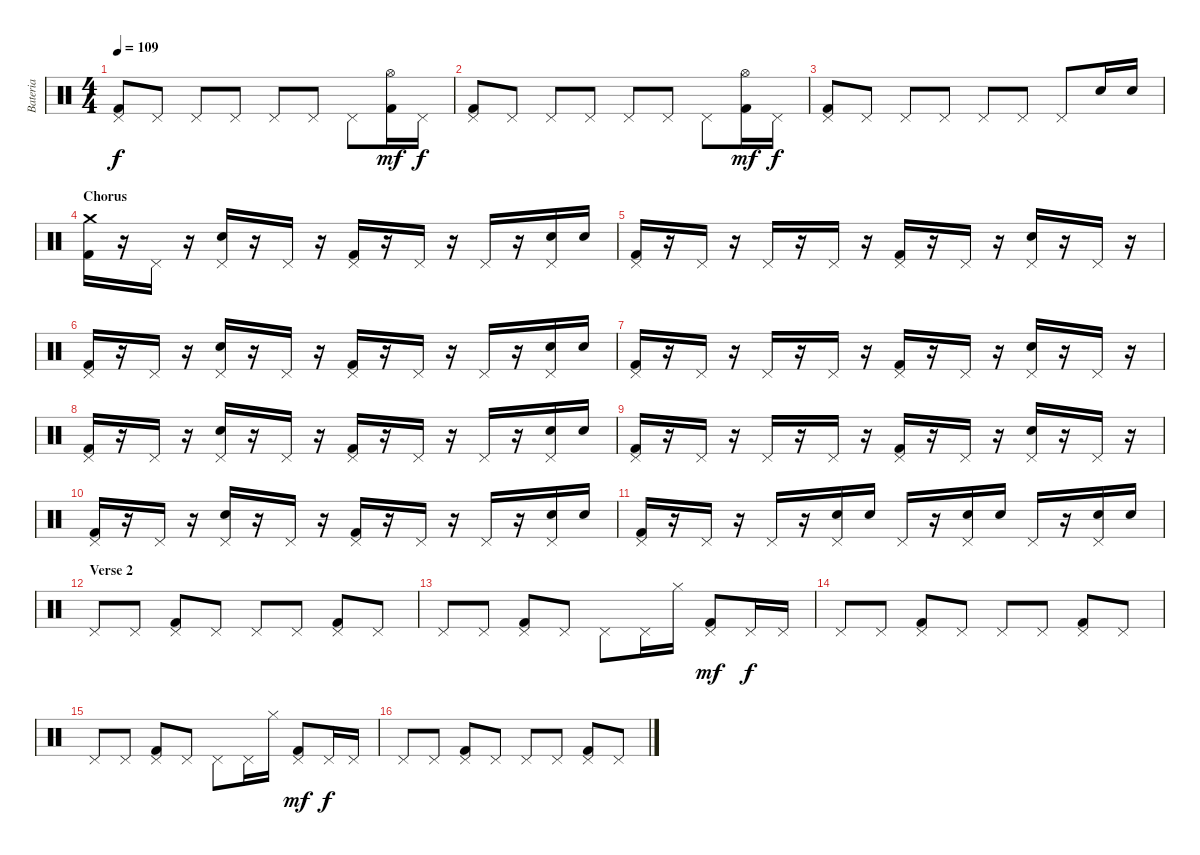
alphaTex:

\track ("Bateria" "Bateria") {instrument percussion}
\staff {score}
\articulation defaults
\ts (4 4)
\tempo 109
\clef neutral
\ks c
("Pedal Hi-Hat (hit)" "Kick (hit) 2").8{dy f} "Pedal Hi-Hat (hit)".8 "Pedal Hi-Hat (hit)".8 "Pedal Hi-Hat (hit)".8 "Pedal Hi-Hat (hit)".8 "Pedal Hi-Hat (hit)".8 "Pedal Hi-Hat (hit)".8 ("Hi-Hat (open)" "Kick (hit) 2").16{dy mf} "Pedal Hi-Hat (hit)".16{dy f} |
("Pedal Hi-Hat (hit)" "Kick (hit) 2").8 "Pedal Hi-Hat (hit)".8 "Pedal Hi-Hat (hit)".8 "Pedal Hi-Hat (hit)".8 "Pedal Hi-Hat (hit)".8 "Pedal Hi-Hat (hit)".8 "Pedal Hi-Hat (hit)".8 ("Hi-Hat (open)" "Kick (hit) 2").16{dy mf} "Pedal Hi-Hat (hit)".16{dy f} |
("Pedal Hi-Hat (hit)" "Kick (hit) 2").8 "Pedal Hi-Hat (hit)".8 "Pedal Hi-Hat (hit)".8 "Pedal Hi-Hat (hit)".8 "Pedal Hi-Hat (hit)".8 "Pedal Hi-Hat (hit)".8 "Pedal Hi-Hat (hit)".8 "Electric Snare (hit)".16 "Electric Snare (hit)".16 |
\section ("" "Chorus")
("Crash medium (hit)" "Kick (hit) 2").16 r.16 "Pedal Hi-Hat (hit)".16 r.16 ("Pedal Hi-Hat (hit)" "Electric Snare (hit)").16 r.16 "Pedal Hi-Hat (hit)".16 r.16 ("Pedal Hi-Hat (hit)" "Kick (hit) 2").16 r.16 "Pedal Hi-Hat (hit)".16 r.16 "Pedal Hi-Hat (hit)".16 r.16 ("Pedal Hi-Hat (hit)" "Electric Snare (hit)").16 "Electric Snare (hit)".16 |
("Pedal Hi-Hat (hit)" "Kick (hit) 2").16 r.16 "Pedal Hi-Hat (hit)".16 r.16 "Pedal Hi-Hat (hit)".16 r.16 "Pedal Hi-Hat (hit)".16 r.16 ("Pedal Hi-Hat (hit)" "Kick (hit) 2").16 r.16 "Pedal Hi-Hat (hit)".16 r.16 ("Pedal Hi-Hat (hit)" "Electric Snare (hit)").16 r.16 "Pedal Hi-Hat (hit)".16 r.16 |
("Pedal Hi-Hat (hit)" "Kick (hit) 2").16 r.16 "Pedal Hi-Hat (hit)".16 r.16 ("Pedal Hi-Hat (hit)" "Electric Snare (hit)").16 r.16 "Pedal Hi-Hat (hit)".16 r.16 ("Pedal Hi-Hat (hit)" "Kick (hit) 2").16 r.16 "Pedal Hi-Hat (hit)".16 r.16 "Pedal Hi-Hat (hit)".16 r.16 ("Pedal Hi-Hat (hit)" "Electric Snare (hit)").16 "Electric Snare (hit)".16 |
("Pedal Hi-Hat (hit)" "Kick (hit) 2").16 r.16 "Pedal Hi-Hat (hit)".16 r.16 "Pedal Hi-Hat (hit)".16 r.16 "Pedal Hi-Hat (hit)".16 r.16 ("Pedal Hi-Hat (hit)" "Kick (hit) 2").16 r.16 "Pedal Hi-Hat (hit)".16 r.16 ("Pedal Hi-Hat (hit)" "Electric Snare (hit)").16 r.16 "Pedal Hi-Hat (hit)".16 r.16 |
("Pedal Hi-Hat (hit)" "Kick (hit) 2").16 r.16 "Pedal Hi-Hat (hit)".16 r.16 ("Pedal Hi-Hat (hit)" "Electric Snare (hit)").16 r.16 "Pedal Hi-Hat (hit)".16 r.16 ("Pedal Hi-Hat (hit)" "Kick (hit) 2").16 r.16 "Pedal Hi-Hat (hit)".16 r.16 "Pedal Hi-Hat (hit)".16 r.16 ("Pedal Hi-Hat (hit)" "Electric Snare (hit)").16 "Electric Snare (hit)".16 |
("Pedal Hi-Hat (hit)" "Kick (hit) 2").16 r.16 "Pedal Hi-Hat (hit)".16 r.16 "Pedal Hi-Hat (hit)".16 r.16 "Pedal Hi-Hat (hit)".16 r.16 ("Pedal Hi-Hat (hit)" "Kick (hit) 2").16 r.16 "Pedal Hi-Hat (hit)".16 r.16 ("Pedal Hi-Hat (hit)" "Electric Snare (hit)").16 r.16 "Pedal Hi-Hat (hit)".16 r.16 |
("Pedal Hi-Hat (hit)" "Kick (hit) 2").16 r.16 "Pedal Hi-Hat (hit)".16 r.16 ("Pedal Hi-Hat (hit)" "Electric Snare (hit)").16 r.16 "Pedal Hi-Hat (hit)".16 r.16 ("Pedal Hi-Hat (hit)" "Kick (hit) 2").16 r.16 "Pedal Hi-Hat (hit)".16 r.16 "Pedal Hi-Hat (hit)".16 r.16 ("Pedal Hi-Hat (hit)" "Electric Snare (hit)").16 "Electric Snare (hit)".16 |
("Pedal Hi-Hat (hit)" "Kick (hit) 2").16 r.16 "Pedal Hi-Hat (hit)".16 r.16 "Pedal Hi-Hat (hit)".16 r.16 ("Pedal Hi-Hat (hit)" "Electric Snare (hit)").16 "Electric Snare (hit)".16 "Pedal Hi-Hat (hit)".16 r.16 ("Pedal Hi-Hat (hit)" "Electric Snare (hit)").16 "Electric Snare (hit)".16 "Pedal Hi-Hat (hit)".16 r.16 ("Pedal Hi-Hat (hit)" "Electric Snare (hit)").16 "Electric Snare (hit)".16 |
\section ("" "Verse 2")
"Pedal Hi-Hat (hit)".8 "Pedal Hi-Hat (hit)".8 ("Pedal Hi-Hat (hit)" "Kick (hit) 2").8 "Pedal Hi-Hat (hit)".8 "Pedal Hi-Hat (hit)".8 "Pedal Hi-Hat (hit)".8 ("Pedal Hi-Hat (hit)" "Kick (hit) 2").8 "Pedal Hi-Hat (hit)".8 |
"Pedal Hi-Hat (hit)".8 "Pedal Hi-Hat (hit)".8 ("Pedal Hi-Hat (hit)" "Kick (hit) 2").8 "Pedal Hi-Hat (hit)".8 "Pedal Hi-Hat (hit)".8 "Pedal Hi-Hat (hit)".16 "Hi-Hat (closed)".16 ("Pedal Hi-Hat (hit)" "Kick (hit) 2").8{dy mf} "Pedal Hi-Hat (hit)".16{dy f} "Pedal Hi-Hat (hit)".16 |
"Pedal Hi-Hat (hit)".8 "Pedal Hi-Hat (hit)".8 ("Pedal Hi-Hat (hit)" "Kick (hit) 2").8 "Pedal Hi-Hat (hit)".8 "Pedal Hi-Hat (hit)".8 "Pedal Hi-Hat (hit)".8 ("Pedal Hi-Hat (hit)" "Kick (hit) 2").8 "Pedal Hi-Hat (hit)".8 |
"Pedal Hi-Hat (hit)".8 "Pedal Hi-Hat (hit)".8 ("Pedal Hi-Hat (hit)" "Kick (hit) 2").8 "Pedal Hi-Hat (hit)".8 "Pedal Hi-Hat (hit)".8 "Pedal Hi-Hat (hit)".16 "Hi-Hat (closed)".16 ("Pedal Hi-Hat (hit)" "Kick (hit) 2").8{dy mf} "Pedal Hi-Hat (hit)".16{dy f} "Pedal Hi-Hat (hit)".16 |
"Pedal Hi-Hat (hit)".8 "Pedal Hi-Hat (hit)".8 ("Pedal Hi-Hat (hit)" "Kick (hit) 2").8 "Pedal Hi-Hat (hit)".8 "Pedal Hi-Hat (hit)".8 "Pedal Hi-Hat (hit)".8 ("Pedal Hi-Hat (hit)" "Kick (hit) 2").8 "Pedal Hi-Hat (hit)".8
